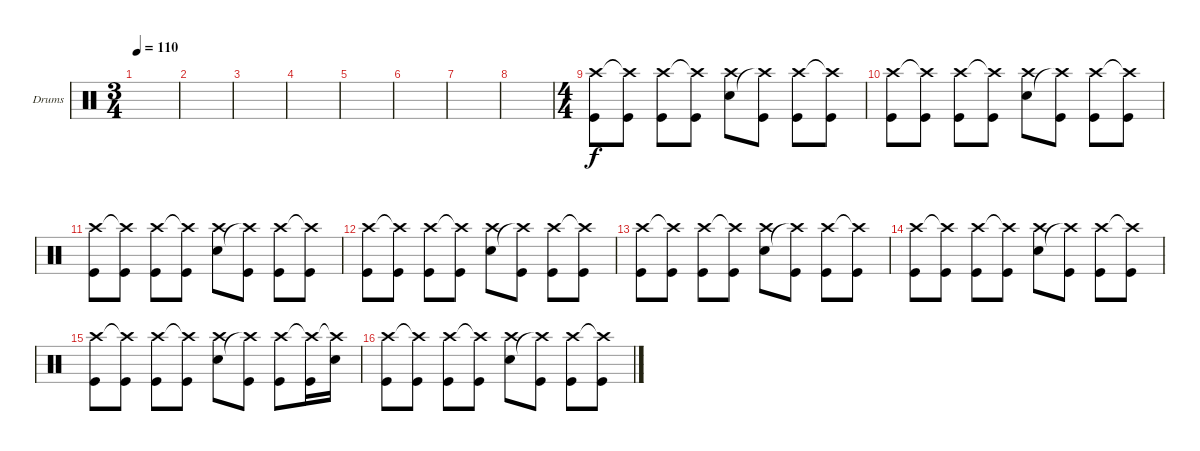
\bracketExtendMode groupsimilarinstruments
\firstSystemTrackNameOrientation horizontal
\otherSystemsTrackNameOrientation horizontal
\track ("Drumkit" "Drums") {instrument percussion}
\staff {score}
\articulation defaults
\ts (3 4)
\tempo 110
\clef neutral
\ks c
|
|
|
|
|
|
|
|
\ts (4 4)
("Kick (hit)" "Crash high (hit)").8{lyrics (0 "") lyrics (1 "") lyrics (2 "") lyrics (3 "") lyrics (4 "")} ("Kick (hit)" "Crash high (hit)"{t}).8{lyrics (0 "") lyrics (1 "") lyrics (2 "") lyrics (3 "") lyrics (4 "")} ("Kick (hit)" "Crash high (hit)").8 ("Kick (hit)" "Crash high (hit)"{t}).8 ("Crash high (hit)" "Snare (hit) 2").8 ("Kick (hit)" "Crash high (hit)"{t}).8 ("Kick (hit)" "Crash high (hit)").8 ("Kick (hit)" "Crash high (hit)"{t}).8 |
("Kick (hit)" "Crash high (hit)").8 ("Kick (hit)" "Crash high (hit)"{t}).8 ("Kick (hit)" "Crash high (hit)").8 ("Kick (hit)" "Crash high (hit)"{t}).8 ("Crash high (hit)" "Snare (hit) 2").8 ("Kick (hit)" "Crash high (hit)"{t}).8 ("Kick (hit)" "Crash high (hit)").8 ("Kick (hit)" "Crash high (hit)"{t}).8 |
("Kick (hit)" "Crash high (hit)").8 ("Kick (hit)" "Crash high (hit)"{t}).8 ("Kick (hit)" "Crash high (hit)").8 ("Kick (hit)" "Crash high (hit)"{t}).8 ("Crash high (hit)" "Snare (hit) 2").8 ("Kick (hit)" "Crash high (hit)"{t}).8 ("Kick (hit)" "Crash high (hit)").8 ("Kick (hit)" "Crash high (hit)"{t}).8 |
("Kick (hit)" "Crash high (hit)").8 ("Kick (hit)" "Crash high (hit)"{t}).8 ("Kick (hit)" "Crash high (hit)").8 ("Kick (hit)" "Crash high (hit)"{t}).8 ("Crash high (hit)" "Snare (hit) 2").8 ("Kick (hit)" "Crash high (hit)"{t}).8 ("Kick (hit)" "Crash high (hit)").8 ("Kick (hit)" "Crash high (hit)"{t}).8 |
("Kick (hit)" "Crash high (hit)").8 ("Kick (hit)" "Crash high (hit)"{t}).8 ("Kick (hit)" "Crash high (hit)").8 ("Kick (hit)" "Crash high (hit)"{t}).8 ("Crash high (hit)" "Snare (hit) 2").8 ("Kick (hit)" "Crash high (hit)"{t}).8 ("Kick (hit)" "Crash high (hit)").8 ("Kick (hit)" "Crash high (hit)"{t}).8 |
("Kick (hit)" "Crash high (hit)").8 ("Kick (hit)" "Crash high (hit)"{t}).8 ("Kick (hit)" "Crash high (hit)").8 ("Kick (hit)" "Crash high (hit)"{t}).8 ("Crash high (hit)" "Snare (hit) 2").8 ("Kick (hit)" "Crash high (hit)"{t}).8 ("Kick (hit)" "Crash high (hit)").8 ("Kick (hit)" "Crash high (hit)"{t}).8 |
("Kick (hit)" "Crash high (hit)").8 ("Kick (hit)" "Crash high (hit)"{t}).8 ("Kick (hit)" "Crash high (hit)").8 ("Kick (hit)" "Crash high (hit)"{t}).8 ("Crash high (hit)" "Snare (hit) 2").8 ("Kick (hit)" "Crash high (hit)"{t}).8 ("Kick (hit)" "Crash high (hit)").8 ("Kick (hit)" "Crash high (hit)"{t}).16 ("Snare (hit) 2" "Crash high (hit)"{t}).16 |
("Kick (hit)" "Crash high (hit)").8 ("Kick (hit)" "Crash high (hit)"{t}).8 ("Kick (hit)" "Crash high (hit)").8 ("Kick (hit)" "Crash high (hit)"{t}).8 ("Crash high (hit)" "Snare (hit) 2").8 ("Kick (hit)" "Crash high (hit)"{t}).8 ("Kick (hit)" "Crash high (hit)").8 ("Kick (hit)" "Crash high (hit)"{t}).8
